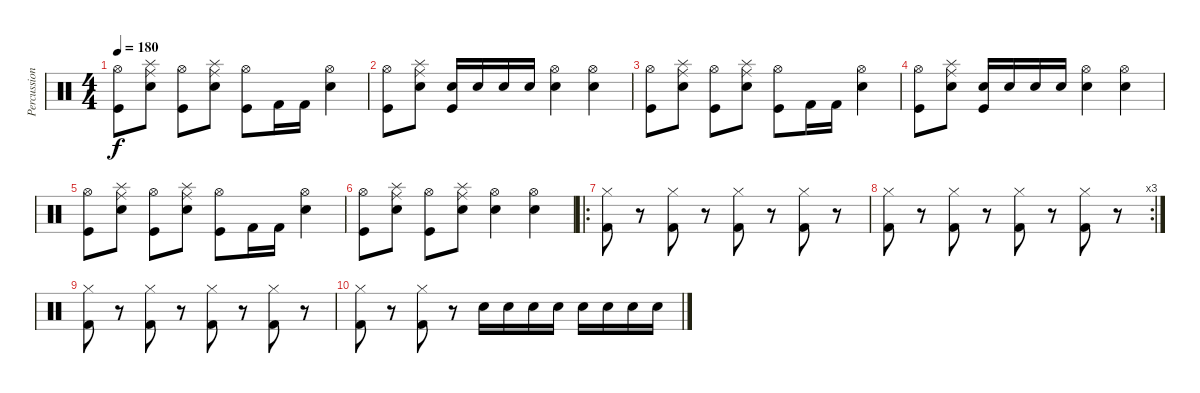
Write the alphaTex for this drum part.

\track ("Percussions" "Percussion") {instrument percussion}
\staff {score}
\articulation defaults
\ts (4 4)
\tempo 180
\clef neutral
\ks c
("Kick (hit)" "Hi-Hat (open)").8{dy f} ("Snare (hit) 2" "Ride (middle)" "Splash (hit)").8 ("Kick (hit)" "Hi-Hat (open)").8 ("Snare (hit) 2" "Ride (middle)" "Splash (hit)").8 ("Kick (hit)" "Hi-Hat (open)").8 "Kick (hit) 2".16 "Kick (hit) 2".16 ("Hi-Hat (open)" "Electric Snare (hit)").4 |
("Kick (hit)" "Hi-Hat (open)").8 ("Snare (hit) 2" "Ride (middle)" "Splash (hit)").8 ("Electric Snare (hit)" "Kick (hit)").16 "Electric Snare (hit)".16 "Electric Snare (hit)".16 "Electric Snare (hit)".16 ("Hi-Hat (open)" "Electric Snare (hit)").4 ("Hi-Hat (open)" "Electric Snare (hit)").4 |
("Kick (hit)" "Hi-Hat (open)").8 ("Snare (hit) 2" "Ride (middle)" "Splash (hit)").8 ("Kick (hit)" "Hi-Hat (open)").8 ("Snare (hit) 2" "Ride (middle)" "Splash (hit)").8 ("Kick (hit)" "Hi-Hat (open)").8 "Kick (hit) 2".16 "Kick (hit) 2".16 ("Hi-Hat (open)" "Electric Snare (hit)").4 |
("Kick (hit)" "Hi-Hat (open)").8 ("Snare (hit) 2" "Ride (middle)" "Splash (hit)").8 ("Electric Snare (hit)" "Kick (hit)").16 "Electric Snare (hit)".16 "Electric Snare (hit)".16 "Electric Snare (hit)".16 ("Hi-Hat (open)" "Electric Snare (hit)").4 ("Hi-Hat (open)" "Electric Snare (hit)").4 |
("Kick (hit)" "Hi-Hat (open)").8 ("Snare (hit) 2" "Ride (middle)" "Splash (hit)").8 ("Kick (hit)" "Hi-Hat (open)").8 ("Snare (hit) 2" "Ride (middle)" "Splash (hit)").8 ("Kick (hit)" "Hi-Hat (open)").8 "Kick (hit) 2".16 "Kick (hit) 2".16 ("Hi-Hat (open)" "Electric Snare (hit)").4 |
("Kick (hit)" "Hi-Hat (open)").8 ("Snare (hit) 2" "Ride (middle)" "Splash (hit)").8 ("Kick (hit)" "Hi-Hat (open)").8 ("Snare (hit) 2" "Ride (middle)" "Splash (hit)").8 ("Hi-Hat (open)" "Electric Snare (hit)").4 ("Hi-Hat (open)" "Electric Snare (hit)").4 |
\ro
("Hi-Hat (closed)" "Kick (hit) 2").8 r.8 ("Hi-Hat (closed)" "Kick (hit) 2").8 r.8 ("Hi-Hat (closed)" "Kick (hit) 2").8 r.8 ("Hi-Hat (closed)" "Kick (hit) 2").8 r.8 |
\rc 3
("Hi-Hat (closed)" "Kick (hit) 2").8 r.8 ("Hi-Hat (closed)" "Kick (hit) 2").8 r.8 ("Hi-Hat (closed)" "Kick (hit) 2").8 r.8 ("Hi-Hat (closed)" "Kick (hit) 2").8 r.8 |
("Hi-Hat (closed)" "Kick (hit) 2").8 r.8 ("Hi-Hat (closed)" "Kick (hit) 2").8 r.8 ("Hi-Hat (closed)" "Kick (hit) 2").8 r.8 ("Hi-Hat (closed)" "Kick (hit) 2").8 r.8 |
("Hi-Hat (closed)" "Kick (hit) 2").8 r.8 ("Hi-Hat (closed)" "Kick (hit) 2").8 r.8 "Electric Snare (hit)".16 "Electric Snare (hit)".16 "Electric Snare (hit)".16 "Electric Snare (hit)".16 "Electric Snare (hit)".16 "Electric Snare (hit)".16 "Electric Snare (hit)".16 "Electric Snare (hit)".16
